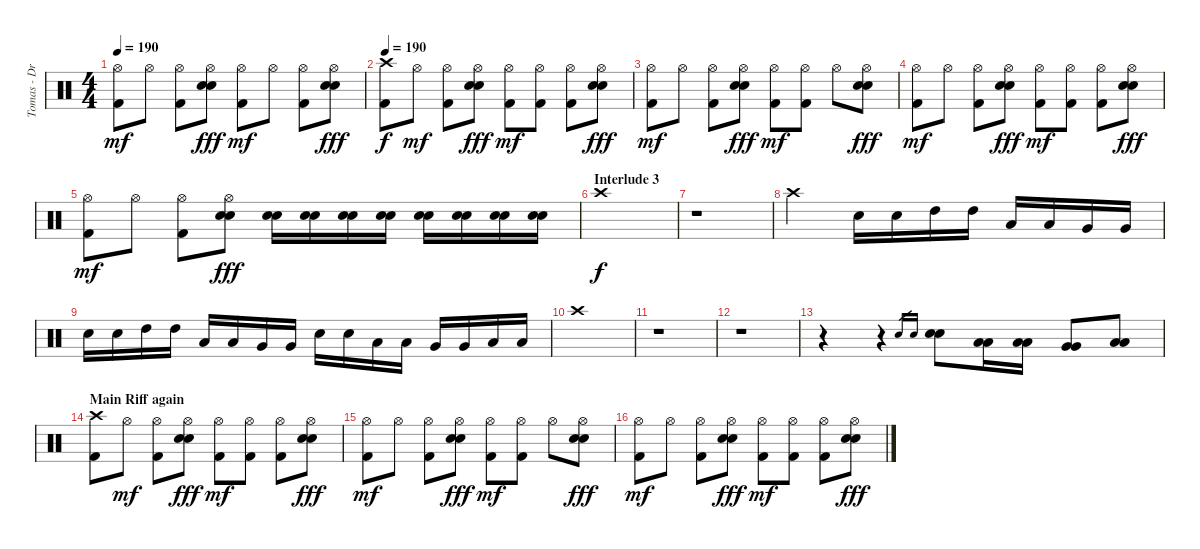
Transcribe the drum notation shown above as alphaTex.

\track ("Tomas - Drums" "Tomas - Dr") {instrument percussion}
\staff {score}
\articulation defaults
\ts (4 4)
\tempo 190
\clef neutral
\ks c
("Hi-Hat (open)" "Kick (hit) 2").8{dy mf} "Hi-Hat (open)".8 ("Hi-Hat (open)" "Kick (hit) 2").8 ("Hi-Hat (open)" "Electric Snare (hit)" "Electric Snare (hit)").8{dy fff} ("Hi-Hat (open)" "Kick (hit) 2").8{dy mf} "Hi-Hat (open)".8 ("Hi-Hat (open)" "Kick (hit) 2").8 ("Hi-Hat (open)" "Electric Snare (hit)" "Electric Snare (hit)").8{dy fff} |
\tempo 190
("Crash high (hit)" "Kick (hit) 2").8{dy f} "Hi-Hat (open)".8{dy mf} ("Hi-Hat (open)" "Kick (hit) 2").8 ("Hi-Hat (open)" "Electric Snare (hit)" "Electric Snare (hit)").8{dy fff} ("Hi-Hat (open)" "Kick (hit) 2").8{dy mf} ("Hi-Hat (open)" "Kick (hit) 2").8 ("Hi-Hat (open)" "Kick (hit) 2").8 ("Hi-Hat (open)" "Electric Snare (hit)" "Electric Snare (hit)").8{dy fff} |
("Hi-Hat (open)" "Kick (hit) 2").8{dy mf} "Hi-Hat (open)".8 ("Hi-Hat (open)" "Kick (hit) 2").8 ("Hi-Hat (open)" "Electric Snare (hit)" "Electric Snare (hit)").8{dy fff} ("Hi-Hat (open)" "Kick (hit) 2").8{dy mf} ("Hi-Hat (open)" "Kick (hit) 2").8 "Hi-Hat (open)".8 ("Hi-Hat (open)" "Electric Snare (hit)" "Electric Snare (hit)").8{dy fff} |
("Hi-Hat (open)" "Kick (hit) 2").8{dy mf} "Hi-Hat (open)".8 ("Hi-Hat (open)" "Kick (hit) 2").8 ("Hi-Hat (open)" "Electric Snare (hit)" "Electric Snare (hit)").8{dy fff} ("Hi-Hat (open)" "Kick (hit) 2").8{dy mf} ("Hi-Hat (open)" "Kick (hit) 2").8 ("Hi-Hat (open)" "Kick (hit) 2").8 ("Hi-Hat (open)" "Electric Snare (hit)" "Electric Snare (hit)").8{dy fff} |
("Hi-Hat (open)" "Kick (hit) 2").8{dy mf} "Hi-Hat (open)".8 ("Hi-Hat (open)" "Kick (hit) 2").8 ("Hi-Hat (open)" "Electric Snare (hit)" "Electric Snare (hit)").8{dy fff} ("Electric Snare (hit)" "Electric Snare (hit)").16 ("Electric Snare (hit)" "Electric Snare (hit)").16 ("Electric Snare (hit)" "Electric Snare (hit)").16 ("Electric Snare (hit)" "Electric Snare (hit)").16 ("Electric Snare (hit)" "Electric Snare (hit)").16 ("Electric Snare (hit)" "Electric Snare (hit)").16 ("Electric Snare (hit)" "Electric Snare (hit)").16 ("Electric Snare (hit)" "Electric Snare (hit)").16 |
\section ("" "Interlude 3")
"Crash high (hit)".1{dy f} |
r.1 |
"Crash high (hit)".2 "Electric Snare (hit)".16 "Electric Snare (hit)".16 "High Tom (hit)".16 "High Tom (hit)".16 "Low Tom (hit)".16 "Low Tom (hit)".16 "Very Low Tom (hit)".16 "Very Low Tom (hit)".16 |
"Electric Snare (hit)".16 "Electric Snare (hit)".16 "High Tom (hit)".16 "High Tom (hit)".16 "Low Tom (hit)".16 "Low Tom (hit)".16 "Very Low Tom (hit)".16 "Very Low Tom (hit)".16 "Electric Snare (hit)".16 "Electric Snare (hit)".16 "Low Tom (hit)".16 "Low Tom (hit)".16 "Very Low Tom (hit)".16 "Very Low Tom (hit)".16 "Low Floor Tom (hit)".16 "Low Floor Tom (hit)".16 |
"Crash high (hit)".1 |
r.1 |
r.1 |
r.4 r.4 "Electric Snare (hit)".16{gr} "Electric Snare (hit)".16{gr} ("Electric Snare (hit)" "Electric Snare (hit)").8 ("Low Tom (hit)" "Low Tom (hit)").16 ("Low Tom (hit)" "Low Tom (hit)").16 ("Very Low Tom (hit)" "Very Low Tom (hit)").8 ("Low Floor Tom (hit)" "Low Floor Tom (hit)").8 |
\section ("" "Main Riff again")
("Crash high (hit)" "Kick (hit) 2").8 "Hi-Hat (open)".8{dy mf} ("Hi-Hat (open)" "Kick (hit) 2").8 ("Hi-Hat (open)" "Electric Snare (hit)" "Electric Snare (hit)").8{dy fff} ("Hi-Hat (open)" "Kick (hit) 2").8{dy mf} ("Hi-Hat (open)" "Kick (hit) 2").8 ("Hi-Hat (open)" "Kick (hit) 2").8 ("Hi-Hat (open)" "Electric Snare (hit)" "Electric Snare (hit)").8{dy fff} |
("Hi-Hat (open)" "Kick (hit) 2").8{dy mf} "Hi-Hat (open)".8 ("Hi-Hat (open)" "Kick (hit) 2").8 ("Hi-Hat (open)" "Electric Snare (hit)" "Electric Snare (hit)").8{dy fff} ("Hi-Hat (open)" "Kick (hit) 2").8{dy mf} ("Hi-Hat (open)" "Kick (hit) 2").8 "Hi-Hat (open)".8 ("Hi-Hat (open)" "Electric Snare (hit)" "Electric Snare (hit)").8{dy fff} |
("Hi-Hat (open)" "Kick (hit) 2").8{dy mf} "Hi-Hat (open)".8 ("Hi-Hat (open)" "Kick (hit) 2").8 ("Hi-Hat (open)" "Electric Snare (hit)" "Electric Snare (hit)").8{dy fff} ("Hi-Hat (open)" "Kick (hit) 2").8{dy mf} ("Hi-Hat (open)" "Kick (hit) 2").8 ("Hi-Hat (open)" "Kick (hit) 2").8 ("Hi-Hat (open)" "Electric Snare (hit)" "Electric Snare (hit)").8{dy fff}
